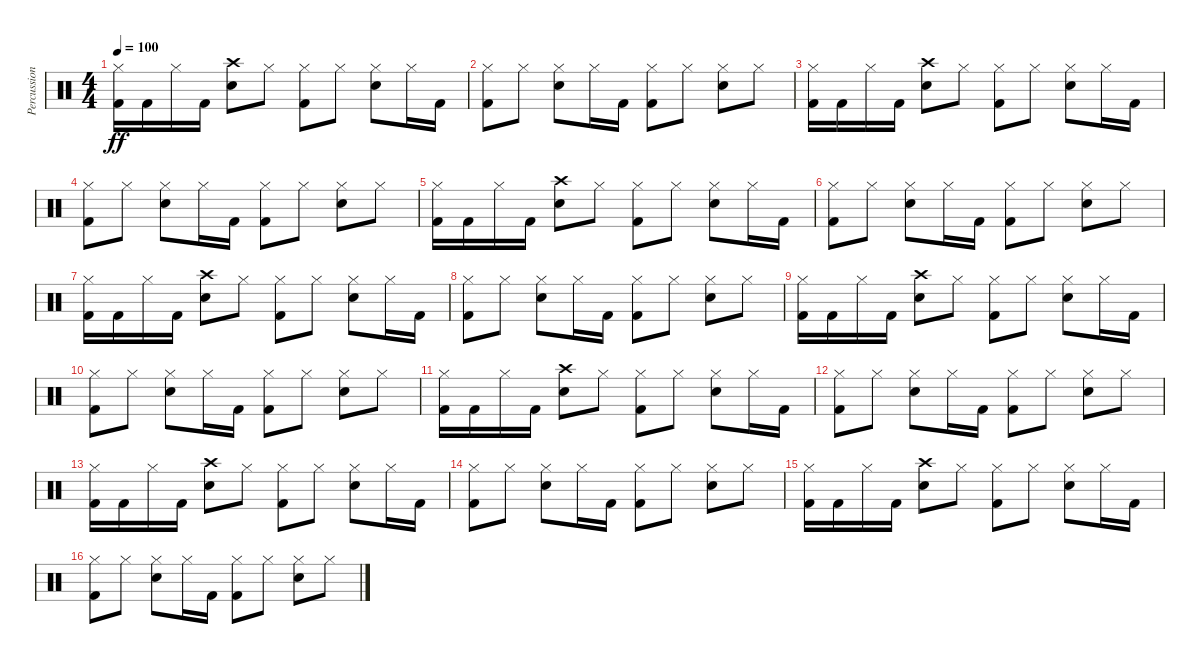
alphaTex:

\track ("Percussion" "Percussion") {instrument percussion}
\staff {score}
\articulation defaults
\ts (4 4)
\tempo 100
\clef neutral
\ks c
("Kick (hit) 2" "Hi-Hat (closed)").16{dy ff} "Kick (hit) 2".16 "Hi-Hat (closed)".16 "Kick (hit) 2".16 ("Electric Snare (hit)" "Crash high (hit)").8 "Hi-Hat (closed)".8 ("Kick (hit) 2" "Hi-Hat (closed)").8 "Hi-Hat (closed)".8 ("Electric Snare (hit)" "Hi-Hat (closed)").8 "Hi-Hat (closed)".16 "Kick (hit) 2".16 |
("Kick (hit) 2" "Hi-Hat (closed)").8 "Hi-Hat (closed)".8 ("Electric Snare (hit)" "Hi-Hat (closed)").8 "Hi-Hat (closed)".16 "Kick (hit) 2".16 ("Kick (hit) 2" "Hi-Hat (closed)").8 "Hi-Hat (closed)".8 ("Electric Snare (hit)" "Hi-Hat (closed)").8 "Hi-Hat (closed)".8 |
("Kick (hit) 2" "Hi-Hat (closed)").16 "Kick (hit) 2".16 "Hi-Hat (closed)".16 "Kick (hit) 2".16 ("Electric Snare (hit)" "Crash high (hit)").8 "Hi-Hat (closed)".8 ("Kick (hit) 2" "Hi-Hat (closed)").8 "Hi-Hat (closed)".8 ("Electric Snare (hit)" "Hi-Hat (closed)").8 "Hi-Hat (closed)".16 "Kick (hit) 2".16 |
("Kick (hit) 2" "Hi-Hat (closed)").8 "Hi-Hat (closed)".8 ("Electric Snare (hit)" "Hi-Hat (closed)").8 "Hi-Hat (closed)".16 "Kick (hit) 2".16 ("Kick (hit) 2" "Hi-Hat (closed)").8 "Hi-Hat (closed)".8 ("Electric Snare (hit)" "Hi-Hat (closed)").8 "Hi-Hat (closed)".8 |
("Kick (hit) 2" "Hi-Hat (closed)").16 "Kick (hit) 2".16 "Hi-Hat (closed)".16 "Kick (hit) 2".16 ("Electric Snare (hit)" "Crash high (hit)").8 "Hi-Hat (closed)".8 ("Kick (hit) 2" "Hi-Hat (closed)").8 "Hi-Hat (closed)".8 ("Electric Snare (hit)" "Hi-Hat (closed)").8 "Hi-Hat (closed)".16 "Kick (hit) 2".16 |
("Kick (hit) 2" "Hi-Hat (closed)").8 "Hi-Hat (closed)".8 ("Electric Snare (hit)" "Hi-Hat (closed)").8 "Hi-Hat (closed)".16 "Kick (hit) 2".16 ("Kick (hit) 2" "Hi-Hat (closed)").8 "Hi-Hat (closed)".8 ("Electric Snare (hit)" "Hi-Hat (closed)").8 "Hi-Hat (closed)".8 |
("Kick (hit) 2" "Hi-Hat (closed)").16 "Kick (hit) 2".16 "Hi-Hat (closed)".16 "Kick (hit) 2".16 ("Electric Snare (hit)" "Crash high (hit)").8 "Hi-Hat (closed)".8 ("Kick (hit) 2" "Hi-Hat (closed)").8 "Hi-Hat (closed)".8 ("Electric Snare (hit)" "Hi-Hat (closed)").8 "Hi-Hat (closed)".16 "Kick (hit) 2".16 |
("Kick (hit) 2" "Hi-Hat (closed)").8 "Hi-Hat (closed)".8 ("Electric Snare (hit)" "Hi-Hat (closed)").8 "Hi-Hat (closed)".16 "Kick (hit) 2".16 ("Kick (hit) 2" "Hi-Hat (closed)").8 "Hi-Hat (closed)".8 ("Electric Snare (hit)" "Hi-Hat (closed)").8 "Hi-Hat (closed)".8 |
("Kick (hit) 2" "Hi-Hat (closed)").16 "Kick (hit) 2".16 "Hi-Hat (closed)".16 "Kick (hit) 2".16 ("Electric Snare (hit)" "Crash high (hit)").8 "Hi-Hat (closed)".8 ("Kick (hit) 2" "Hi-Hat (closed)").8 "Hi-Hat (closed)".8 ("Electric Snare (hit)" "Hi-Hat (closed)").8 "Hi-Hat (closed)".16 "Kick (hit) 2".16 |
("Kick (hit) 2" "Hi-Hat (closed)").8 "Hi-Hat (closed)".8 ("Electric Snare (hit)" "Hi-Hat (closed)").8 "Hi-Hat (closed)".16 "Kick (hit) 2".16 ("Kick (hit) 2" "Hi-Hat (closed)").8 "Hi-Hat (closed)".8 ("Electric Snare (hit)" "Hi-Hat (closed)").8 "Hi-Hat (closed)".8 |
("Kick (hit) 2" "Hi-Hat (closed)").16 "Kick (hit) 2".16 "Hi-Hat (closed)".16 "Kick (hit) 2".16 ("Electric Snare (hit)" "Crash high (hit)").8 "Hi-Hat (closed)".8 ("Kick (hit) 2" "Hi-Hat (closed)").8 "Hi-Hat (closed)".8 ("Electric Snare (hit)" "Hi-Hat (closed)").8 "Hi-Hat (closed)".16 "Kick (hit) 2".16 |
("Kick (hit) 2" "Hi-Hat (closed)").8 "Hi-Hat (closed)".8 ("Electric Snare (hit)" "Hi-Hat (closed)").8 "Hi-Hat (closed)".16 "Kick (hit) 2".16 ("Kick (hit) 2" "Hi-Hat (closed)").8 "Hi-Hat (closed)".8 ("Electric Snare (hit)" "Hi-Hat (closed)").8 "Hi-Hat (closed)".8 |
("Kick (hit) 2" "Hi-Hat (closed)").16 "Kick (hit) 2".16 "Hi-Hat (closed)".16 "Kick (hit) 2".16 ("Electric Snare (hit)" "Crash high (hit)").8 "Hi-Hat (closed)".8 ("Kick (hit) 2" "Hi-Hat (closed)").8 "Hi-Hat (closed)".8 ("Electric Snare (hit)" "Hi-Hat (closed)").8 "Hi-Hat (closed)".16 "Kick (hit) 2".16 |
("Kick (hit) 2" "Hi-Hat (closed)").8 "Hi-Hat (closed)".8 ("Electric Snare (hit)" "Hi-Hat (closed)").8 "Hi-Hat (closed)".16 "Kick (hit) 2".16 ("Kick (hit) 2" "Hi-Hat (closed)").8 "Hi-Hat (closed)".8 ("Electric Snare (hit)" "Hi-Hat (closed)").8 "Hi-Hat (closed)".8 |
("Kick (hit) 2" "Hi-Hat (closed)").16 "Kick (hit) 2".16 "Hi-Hat (closed)".16 "Kick (hit) 2".16 ("Electric Snare (hit)" "Crash high (hit)").8 "Hi-Hat (closed)".8 ("Kick (hit) 2" "Hi-Hat (closed)").8 "Hi-Hat (closed)".8 ("Electric Snare (hit)" "Hi-Hat (closed)").8 "Hi-Hat (closed)".16 "Kick (hit) 2".16 |
("Kick (hit) 2" "Hi-Hat (closed)").8 "Hi-Hat (closed)".8 ("Electric Snare (hit)" "Hi-Hat (closed)").8 "Hi-Hat (closed)".16 "Kick (hit) 2".16 ("Kick (hit) 2" "Hi-Hat (closed)").8 "Hi-Hat (closed)".8 ("Electric Snare (hit)" "Hi-Hat (closed)").8 "Hi-Hat (closed)".8
